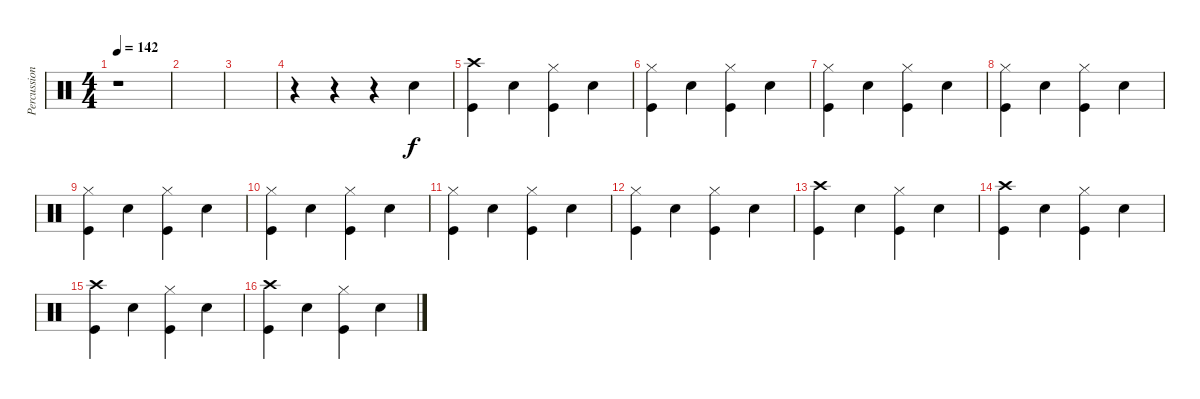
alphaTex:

\track ("Percussion" "Percussion") {instrument percussion}
\staff {score}
\articulation defaults
\ts (4 4)
\tempo 142
\clef neutral
\ks c
r.1{dy f} |
|
|
r.4 r.4 r.4 "Snare (hit) 2".4 |
("Crash high (hit)" "Kick (hit)").4 "Snare (hit) 2".4 ("Hi-Hat (closed)" "Kick (hit)").4 "Snare (hit) 2".4 |
("Hi-Hat (closed)" "Kick (hit)").4 "Snare (hit) 2".4 ("Hi-Hat (closed)" "Kick (hit)").4 "Snare (hit) 2".4 |
("Hi-Hat (closed)" "Kick (hit)").4 "Snare (hit) 2".4 ("Hi-Hat (closed)" "Kick (hit)").4 "Snare (hit) 2".4 |
("Hi-Hat (closed)" "Kick (hit)").4 "Snare (hit) 2".4 ("Hi-Hat (closed)" "Kick (hit)").4 "Snare (hit) 2".4 |
("Hi-Hat (closed)" "Kick (hit)").4 "Snare (hit) 2".4 ("Hi-Hat (closed)" "Kick (hit)").4 "Snare (hit) 2".4 |
("Hi-Hat (closed)" "Kick (hit)").4 "Snare (hit) 2".4 ("Hi-Hat (closed)" "Kick (hit)").4 "Snare (hit) 2".4 |
("Hi-Hat (closed)" "Kick (hit)").4 "Snare (hit) 2".4 ("Hi-Hat (closed)" "Kick (hit)").4 "Snare (hit) 2".4 |
("Hi-Hat (closed)" "Kick (hit)").4 "Snare (hit) 2".4 ("Hi-Hat (closed)" "Kick (hit)").4 "Snare (hit) 2".4 |
("Crash high (hit)" "Kick (hit)").4 "Snare (hit) 2".4 ("Hi-Hat (closed)" "Kick (hit)").4 "Snare (hit) 2".4 |
("Crash high (hit)" "Kick (hit)").4 "Snare (hit) 2".4 ("Hi-Hat (closed)" "Kick (hit)").4 "Snare (hit) 2".4 |
("Crash high (hit)" "Kick (hit)").4 "Snare (hit) 2".4 ("Hi-Hat (closed)" "Kick (hit)").4 "Snare (hit) 2".4 |
("Crash high (hit)" "Kick (hit)").4 "Snare (hit) 2".4 ("Hi-Hat (closed)" "Kick (hit)").4 "Snare (hit) 2".4
